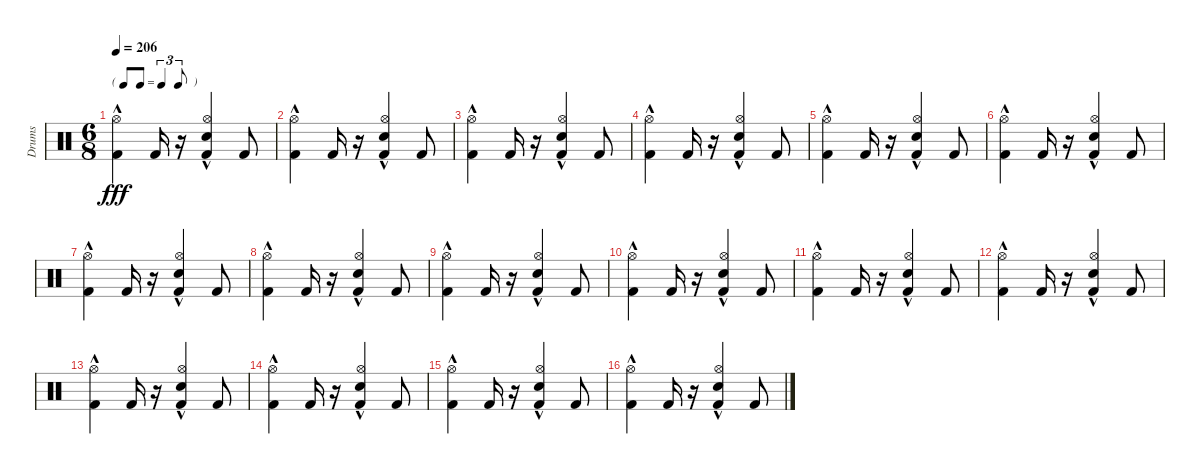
\track ("Drums" "Drums") {instrument percussion}
\staff {score}
\articulation defaults
\ts (6 8)
\tf triplet8th
\tempo 206
\clef neutral
\ks c
("Kick (hit) 2"{hac} "Hi-Hat (open)").4{dy fff} "Kick (hit) 2".16 r.16 ("Kick (hit) 2" "Hi-Hat (open)" "Snare (hit) 2"{hac}).4 "Kick (hit) 2".8 |
("Hi-Hat (open)" "Kick (hit) 2"{hac}).4 "Kick (hit) 2".16 r.16 ("Hi-Hat (open)" "Snare (hit) 2"{hac} "Kick (hit) 2").4 "Kick (hit) 2".8 |
("Hi-Hat (open)" "Kick (hit) 2"{hac}).4 "Kick (hit) 2".16 r.16 ("Hi-Hat (open)" "Snare (hit) 2"{hac} "Kick (hit) 2").4 "Kick (hit) 2".8 |
("Hi-Hat (open)" "Kick (hit) 2"{hac}).4 "Kick (hit) 2".16 r.16 ("Hi-Hat (open)" "Snare (hit) 2"{hac} "Kick (hit) 2").4 "Kick (hit) 2".8 |
("Kick (hit) 2"{hac} "Hi-Hat (open)").4 "Kick (hit) 2".16 r.16 ("Kick (hit) 2" "Hi-Hat (open)" "Snare (hit) 2"{hac}).4 "Kick (hit) 2".8 |
("Hi-Hat (open)" "Kick (hit) 2"{hac}).4 "Kick (hit) 2".16 r.16 ("Hi-Hat (open)" "Snare (hit) 2"{hac} "Kick (hit) 2").4 "Kick (hit) 2".8 |
("Hi-Hat (open)" "Kick (hit) 2"{hac}).4 "Kick (hit) 2".16 r.16 ("Hi-Hat (open)" "Snare (hit) 2"{hac} "Kick (hit) 2").4 "Kick (hit) 2".8 |
("Hi-Hat (open)" "Kick (hit) 2"{hac}).4 "Kick (hit) 2".16 r.16 ("Hi-Hat (open)" "Snare (hit) 2"{hac} "Kick (hit) 2").4 "Kick (hit) 2".8 |
("Kick (hit) 2"{hac} "Hi-Hat (open)").4 "Kick (hit) 2".16 r.16 ("Kick (hit) 2" "Hi-Hat (open)" "Snare (hit) 2"{hac}).4 "Kick (hit) 2".8 |
("Hi-Hat (open)" "Kick (hit) 2"{hac}).4 "Kick (hit) 2".16 r.16 ("Hi-Hat (open)" "Snare (hit) 2"{hac} "Kick (hit) 2").4 "Kick (hit) 2".8 |
("Hi-Hat (open)" "Kick (hit) 2"{hac}).4 "Kick (hit) 2".16 r.16 ("Hi-Hat (open)" "Snare (hit) 2"{hac} "Kick (hit) 2").4 "Kick (hit) 2".8 |
("Hi-Hat (open)" "Kick (hit) 2"{hac}).4 "Kick (hit) 2".16 r.16 ("Hi-Hat (open)" "Snare (hit) 2"{hac} "Kick (hit) 2").4 "Kick (hit) 2".8 |
("Kick (hit) 2"{hac} "Hi-Hat (open)").4 "Kick (hit) 2".16 r.16 ("Kick (hit) 2" "Hi-Hat (open)" "Snare (hit) 2"{hac}).4 "Kick (hit) 2".8 |
("Hi-Hat (open)" "Kick (hit) 2"{hac}).4 "Kick (hit) 2".16 r.16 ("Hi-Hat (open)" "Snare (hit) 2"{hac} "Kick (hit) 2").4 "Kick (hit) 2".8 |
("Hi-Hat (open)" "Kick (hit) 2"{hac}).4 "Kick (hit) 2".16 r.16 ("Hi-Hat (open)" "Snare (hit) 2"{hac} "Kick (hit) 2").4 "Kick (hit) 2".8 |
("Hi-Hat (open)" "Kick (hit) 2"{hac}).4 "Kick (hit) 2".16 r.16 ("Hi-Hat (open)" "Snare (hit) 2"{hac} "Kick (hit) 2").4 "Kick (hit) 2".8
